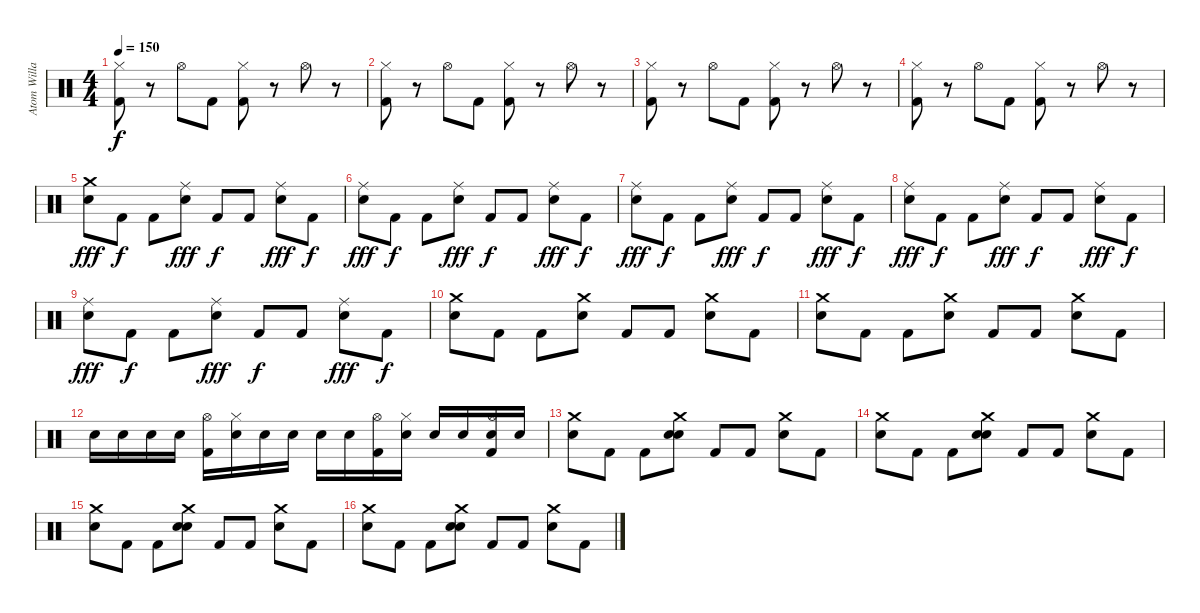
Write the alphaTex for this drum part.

\track ("Atom Willard Drums" "Atom Willa") {instrument percussion}
\staff {score}
\articulation defaults
\ts (4 4)
\tempo 150
\clef neutral
\ks c
("Hi-Hat (closed)" "Kick (hit) 2").8{dy f} r.8 "Hi-Hat (open)".8 "Kick (hit) 2".8 ("Hi-Hat (closed)" "Kick (hit) 2").8 r.8 "Hi-Hat (open)".8 r.8 |
("Hi-Hat (closed)" "Kick (hit) 2").8 r.8 "Hi-Hat (open)".8 "Kick (hit) 2".8 ("Hi-Hat (closed)" "Kick (hit) 2").8 r.8 "Hi-Hat (open)".8 r.8 |
("Hi-Hat (closed)" "Kick (hit) 2").8 r.8 "Hi-Hat (open)".8 "Kick (hit) 2".8 ("Hi-Hat (closed)" "Kick (hit) 2").8 r.8 "Hi-Hat (open)".8 r.8 |
("Hi-Hat (closed)" "Kick (hit) 2").8 r.8 "Hi-Hat (open)".8 "Kick (hit) 2".8 ("Hi-Hat (closed)" "Kick (hit) 2").8 r.8 "Hi-Hat (open)".8 r.8 |
("Crash medium (hit)" "Electric Snare (hit)").8{dy fff} "Kick (hit) 2".8{dy f} "Kick (hit) 2".8 ("Ride (middle)" "Electric Snare (hit)").8{dy fff} "Kick (hit) 2".8{dy f} "Kick (hit) 2".8 ("Ride (middle)" "Electric Snare (hit)").8{dy fff} "Kick (hit) 2".8{dy f} |
("Ride (middle)" "Electric Snare (hit)").8{dy fff} "Kick (hit) 2".8{dy f} "Kick (hit) 2".8 ("Ride (middle)" "Electric Snare (hit)").8{dy fff} "Kick (hit) 2".8{dy f} "Kick (hit) 2".8 ("Ride (middle)" "Electric Snare (hit)").8{dy fff} "Kick (hit) 2".8{dy f} |
("Ride (middle)" "Electric Snare (hit)").8{dy fff} "Kick (hit) 2".8{dy f} "Kick (hit) 2".8 ("Ride (middle)" "Electric Snare (hit)").8{dy fff} "Kick (hit) 2".8{dy f} "Kick (hit) 2".8 ("Ride (middle)" "Electric Snare (hit)").8{dy fff} "Kick (hit) 2".8{dy f} |
("Ride (middle)" "Electric Snare (hit)").8{dy fff} "Kick (hit) 2".8{dy f} "Kick (hit) 2".8 ("Ride (middle)" "Electric Snare (hit)").8{dy fff} "Kick (hit) 2".8{dy f} "Kick (hit) 2".8 ("Ride (middle)" "Electric Snare (hit)").8{dy fff} "Kick (hit) 2".8{dy f} |
("Ride (middle)" "Electric Snare (hit)").8{dy fff} "Kick (hit) 2".8{dy f} "Kick (hit) 2".8 ("Ride (middle)" "Electric Snare (hit)").8{dy fff} "Kick (hit) 2".8{dy f} "Kick (hit) 2".8 ("Ride (middle)" "Electric Snare (hit)").8{dy fff} "Kick (hit) 2".8{dy f} |
("Crash medium (hit)" "Electric Snare (hit)").8 "Kick (hit) 2".8 "Kick (hit) 2".8 ("Crash medium (hit)" "Electric Snare (hit)").8 "Kick (hit) 2".8 "Kick (hit) 2".8 ("Crash medium (hit)" "Electric Snare (hit)").8 "Kick (hit) 2".8 |
("Crash medium (hit)" "Electric Snare (hit)").8 "Kick (hit) 2".8 "Kick (hit) 2".8 ("Crash medium (hit)" "Electric Snare (hit)").8 "Kick (hit) 2".8 "Kick (hit) 2".8 ("Crash medium (hit)" "Electric Snare (hit)").8 "Kick (hit) 2".8 |
"Electric Snare (hit)".16 "Electric Snare (hit)".16 "Electric Snare (hit)".16 "Electric Snare (hit)".16 ("Hi-Hat (open)" "Kick (hit) 2").16 ("Hi-Hat (closed)" "Electric Snare (hit)").16 "Electric Snare (hit)".16 "Electric Snare (hit)".16 "Electric Snare (hit)".16 "Electric Snare (hit)".16 ("Hi-Hat (open)" "Kick (hit) 2").16 ("Hi-Hat (closed)" "Electric Snare (hit)").16 "Electric Snare (hit)".16 "Electric Snare (hit)".16 ("Hi-Hat (open)" "Electric Snare (hit)" "Kick (hit) 2").16 "Electric Snare (hit)".16 |
("Crash medium (hit)" "Electric Snare (hit)").8 "Kick (hit) 2".8 "Kick (hit) 2".8 ("Crash medium (hit)" "Electric Snare (hit)" "Snare (hit)").8 "Kick (hit) 2".8 "Kick (hit) 2".8 ("Crash medium (hit)" "Electric Snare (hit)").8 "Kick (hit) 2".8 |
("Crash medium (hit)" "Electric Snare (hit)").8 "Kick (hit) 2".8 "Kick (hit) 2".8 ("Crash medium (hit)" "Electric Snare (hit)" "Snare (hit)").8 "Kick (hit) 2".8 "Kick (hit) 2".8 ("Crash medium (hit)" "Electric Snare (hit)").8 "Kick (hit) 2".8 |
("Crash medium (hit)" "Electric Snare (hit)").8 "Kick (hit) 2".8 "Kick (hit) 2".8 ("Crash medium (hit)" "Electric Snare (hit)" "Snare (hit)").8 "Kick (hit) 2".8 "Kick (hit) 2".8 ("Crash medium (hit)" "Electric Snare (hit)").8 "Kick (hit) 2".8 |
("Crash medium (hit)" "Electric Snare (hit)").8 "Kick (hit) 2".8 "Kick (hit) 2".8 ("Crash medium (hit)" "Electric Snare (hit)" "Snare (hit)").8 "Kick (hit) 2".8 "Kick (hit) 2".8 ("Crash medium (hit)" "Electric Snare (hit)").8 "Kick (hit) 2".8
